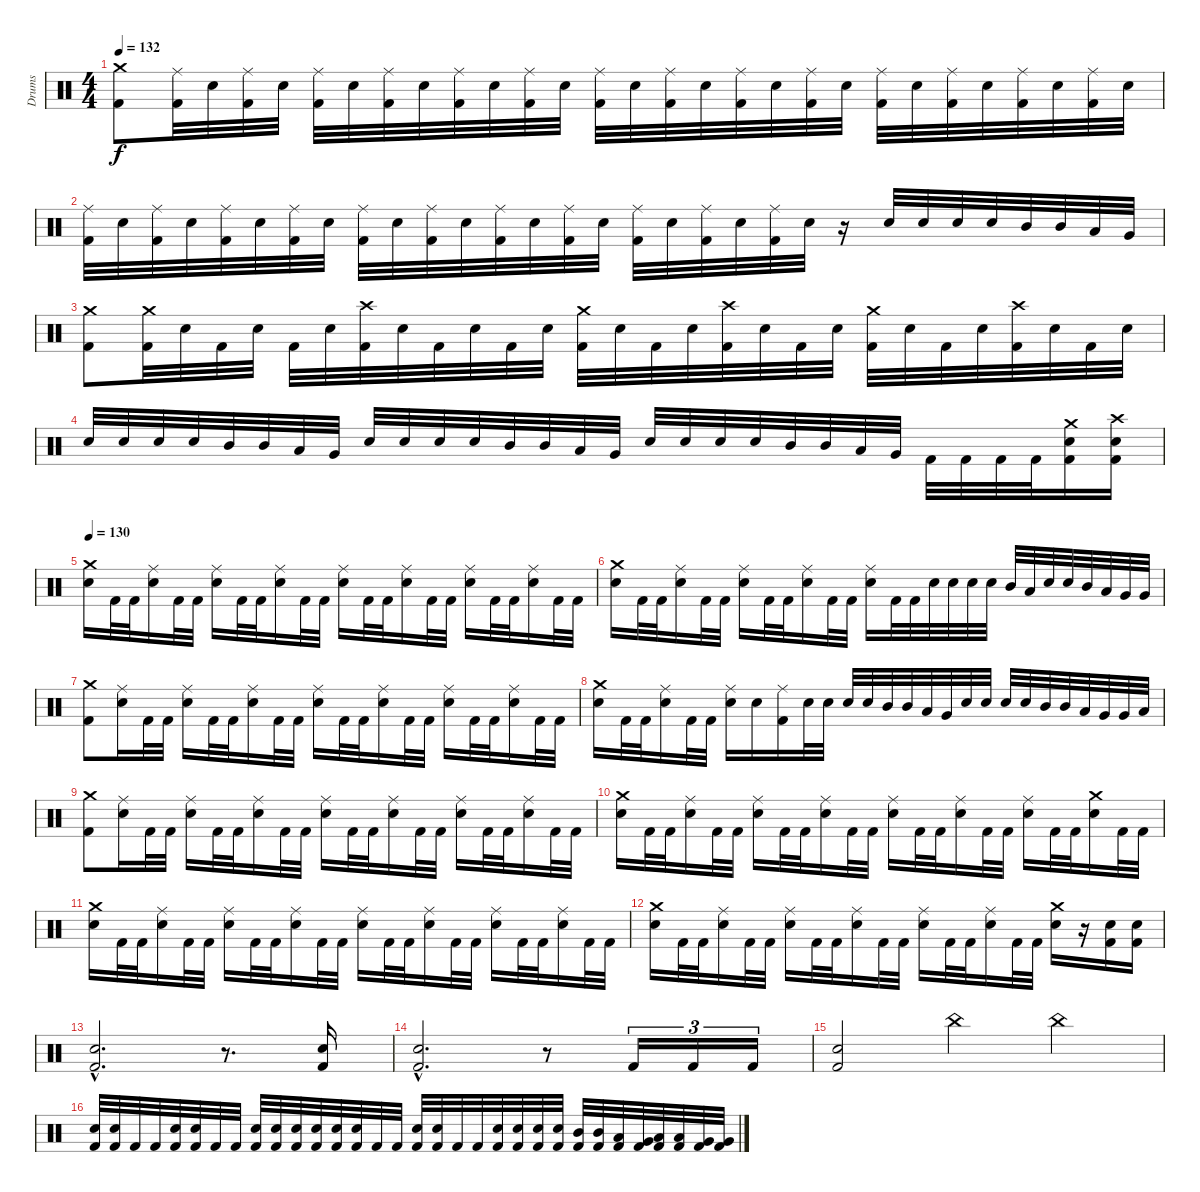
\track ("Drums" "Drums") {instrument percussion}
\staff {score}
\articulation defaults
\ts (4 4)
\section ("" "")
\tempo 132
\clef neutral
\ks c
("Crash medium (hit)" "Kick (hit) 2").8{dy f} ("Ride (middle)" "Kick (hit) 2").32 "Electric Snare (hit)".32 ("Ride (middle)" "Kick (hit) 2").32 "Electric Snare (hit)".32 ("Ride (middle)" "Kick (hit) 2").32 "Electric Snare (hit)".32 ("Ride (middle)" "Kick (hit) 2").32 "Electric Snare (hit)".32 ("Ride (middle)" "Kick (hit) 2").32 "Electric Snare (hit)".32 ("Ride (middle)" "Kick (hit) 2").32 "Electric Snare (hit)".32 ("Ride (middle)" "Kick (hit) 2").32 "Electric Snare (hit)".32 ("Ride (middle)" "Kick (hit) 2").32 "Electric Snare (hit)".32 ("Ride (middle)" "Kick (hit) 2").32 "Electric Snare (hit)".32 ("Ride (middle)" "Kick (hit) 2").32 "Electric Snare (hit)".32 ("Ride (middle)" "Kick (hit) 2").32 "Electric Snare (hit)".32 ("Ride (middle)" "Kick (hit) 2").32 "Electric Snare (hit)".32 ("Ride (middle)" "Kick (hit) 2").32 "Electric Snare (hit)".32 ("Ride (middle)" "Kick (hit) 2").32 "Electric Snare (hit)".32 |
("Ride (middle)" "Kick (hit) 2").32 "Electric Snare (hit)".32 ("Ride (middle)" "Kick (hit) 2").32 "Electric Snare (hit)".32 ("Ride (middle)" "Kick (hit) 2").32 "Electric Snare (hit)".32 ("Ride (middle)" "Kick (hit) 2").32 "Electric Snare (hit)".32 ("Ride (middle)" "Kick (hit) 2").32 "Electric Snare (hit)".32 ("Ride (middle)" "Kick (hit) 2").32 "Electric Snare (hit)".32 ("Ride (middle)" "Kick (hit) 2").32 "Electric Snare (hit)".32 ("Ride (middle)" "Kick (hit) 2").32 "Electric Snare (hit)".32 ("Ride (middle)" "Kick (hit) 2").32 "Electric Snare (hit)".32 ("Ride (middle)" "Kick (hit) 2").32 "Electric Snare (hit)".32 ("Ride (middle)" "Kick (hit) 2").32 "Electric Snare (hit)".32 r.16 "Electric Snare (hit)".32 "Electric Snare (hit)".32 "Electric Snare (hit)".32 "Electric Snare (hit)".32 "Mid Tom (hit)".32 "Mid Tom (hit)".32 "Low Tom (hit)".32 "Very Low Tom (hit)".32 |
("Crash medium (hit)" "Kick (hit) 2").8 ("Crash medium (hit)" "Kick (hit) 2").32 "Electric Snare (hit)".32 "Kick (hit) 2".32 "Electric Snare (hit)".32 "Kick (hit) 2".32 "Electric Snare (hit)".32 ("Crash high (hit)" "Kick (hit) 2").32 "Electric Snare (hit)".32 "Kick (hit) 2".32 "Electric Snare (hit)".32 "Kick (hit) 2".32 "Electric Snare (hit)".32 ("Crash medium (hit)" "Kick (hit) 2").32 "Electric Snare (hit)".32 "Kick (hit) 2".32 "Electric Snare (hit)".32 ("Crash high (hit)" "Kick (hit) 2").32 "Electric Snare (hit)".32 "Kick (hit) 2".32 "Electric Snare (hit)".32 ("Crash medium (hit)" "Kick (hit) 2").32 "Electric Snare (hit)".32 "Kick (hit) 2".32 "Electric Snare (hit)".32 ("Crash high (hit)" "Kick (hit) 2").32 "Electric Snare (hit)".32 "Kick (hit) 2".32 "Electric Snare (hit)".32 |
"Electric Snare (hit)".32 "Electric Snare (hit)".32 "Electric Snare (hit)".32 "Electric Snare (hit)".32 "Mid Tom (hit)".32 "Mid Tom (hit)".32 "Low Tom (hit)".32 "Very Low Tom (hit)".32 "Electric Snare (hit)".32 "Electric Snare (hit)".32 "Electric Snare (hit)".32 "Electric Snare (hit)".32 "Mid Tom (hit)".32 "Mid Tom (hit)".32 "Low Tom (hit)".32 "Very Low Tom (hit)".32 "Electric Snare (hit)".32 "Electric Snare (hit)".32 "Electric Snare (hit)".32 "Electric Snare (hit)".32 "Mid Tom (hit)".32 "Mid Tom (hit)".32 "Low Tom (hit)".32 "Very Low Tom (hit)".32 "Kick (hit) 2".32 "Kick (hit) 2".32 "Kick (hit) 2".32 "Kick (hit) 2".32 ("Crash medium (hit)" "Electric Snare (hit)" "Kick (hit) 2").16 ("Crash high (hit)" "Electric Snare (hit)" "Kick (hit) 2").16 |
\section ("" "")
\tempo 130
("Crash medium (hit)" "Electric Snare (hit)").16 "Kick (hit) 2".32 "Kick (hit) 2".32 ("Ride (middle)" "Electric Snare (hit)").16 "Kick (hit) 2".32 "Kick (hit) 2".32 ("Ride (middle)" "Electric Snare (hit)").16 "Kick (hit) 2".32 "Kick (hit) 2".32 ("Ride (middle)" "Electric Snare (hit)").16 "Kick (hit) 2".32 "Kick (hit) 2".32 ("Ride (middle)" "Electric Snare (hit)").16 "Kick (hit) 2".32 "Kick (hit) 2".32 ("Ride (middle)" "Electric Snare (hit)").16 "Kick (hit) 2".32 "Kick (hit) 2".32 ("Ride (middle)" "Electric Snare (hit)").16 "Kick (hit) 2".32 "Kick (hit) 2".32 ("Ride (middle)" "Electric Snare (hit)").16 "Kick (hit) 2".32 "Kick (hit) 2".32 |
("Crash medium (hit)" "Electric Snare (hit)").16 "Kick (hit) 2".32 "Kick (hit) 2".32 ("Ride (middle)" "Electric Snare (hit)").16 "Kick (hit) 2".32 "Kick (hit) 2".32 ("Ride (middle)" "Electric Snare (hit)").16 "Kick (hit) 2".32 "Kick (hit) 2".32 ("Ride (middle)" "Electric Snare (hit)").16 "Kick (hit) 2".32 "Kick (hit) 2".32 ("Ride (middle)" "Electric Snare (hit)").16 "Kick (hit) 2".32 "Kick (hit) 2".32 "Electric Snare (hit)".32 "Electric Snare (hit)".32 "Electric Snare (hit)".32 "Electric Snare (hit)".32 "Mid Tom (hit)".32 "Low Tom (hit)".32 "Electric Snare (hit)".32 "Electric Snare (hit)".32 "Mid Tom (hit)".32 "Low Tom (hit)".32 "Very Low Tom (hit)".32 "Very Low Tom (hit)".32 |
("Crash medium (hit)" "Kick (hit) 2").8 ("Ride (middle)" "Electric Snare (hit)").16 "Kick (hit) 2".32 "Kick (hit) 2".32 ("Ride (middle)" "Electric Snare (hit)").16 "Kick (hit) 2".32 "Kick (hit) 2".32 ("Ride (middle)" "Electric Snare (hit)").16 "Kick (hit) 2".32 "Kick (hit) 2".32 ("Ride (middle)" "Electric Snare (hit)").16 "Kick (hit) 2".32 "Kick (hit) 2".32 ("Ride (middle)" "Electric Snare (hit)").16 "Kick (hit) 2".32 "Kick (hit) 2".32 ("Ride (middle)" "Electric Snare (hit)").16 "Kick (hit) 2".32 "Kick (hit) 2".32 ("Ride (middle)" "Electric Snare (hit)").16 "Kick (hit) 2".32 "Kick (hit) 2".32 |
("Crash medium (hit)" "Electric Snare (hit)").16 "Kick (hit) 2".32 "Kick (hit) 2".32 ("Ride (middle)" "Electric Snare (hit)").16 "Kick (hit) 2".32 "Kick (hit) 2".32 ("Ride (middle)" "Electric Snare (hit)").16 "Electric Snare (hit)".16 ("Ride (middle)" "Kick (hit) 2").16 "Electric Snare (hit)".32 "Electric Snare (hit)".32 "Electric Snare (hit)".32 "Electric Snare (hit)".32 "Mid Tom (hit)".32 "Mid Tom (hit)".32 "Low Tom (hit)".32 "Very Low Tom (hit)".32 "Electric Snare (hit)".32 "Electric Snare (hit)".32 "Electric Snare (hit)".32 "Electric Snare (hit)".32 "Mid Tom (hit)".32 "Mid Tom (hit)".32 "Low Tom (hit)".32 "Very Low Tom (hit)".32 "Very Low Tom (hit)".32 "Low Floor Tom (hit)".32 |
("Crash medium (hit)" "Kick (hit) 2").8 ("Ride (middle)" "Electric Snare (hit)").16 "Kick (hit) 2".32 "Kick (hit) 2".32 ("Ride (middle)" "Electric Snare (hit)").16 "Kick (hit) 2".32 "Kick (hit) 2".32 ("Ride (middle)" "Electric Snare (hit)").16 "Kick (hit) 2".32 "Kick (hit) 2".32 ("Ride (middle)" "Electric Snare (hit)").16 "Kick (hit) 2".32 "Kick (hit) 2".32 ("Ride (middle)" "Electric Snare (hit)").16 "Kick (hit) 2".32 "Kick (hit) 2".32 ("Ride (middle)" "Electric Snare (hit)").16 "Kick (hit) 2".32 "Kick (hit) 2".32 ("Ride (middle)" "Electric Snare (hit)").16 "Kick (hit) 2".32 "Kick (hit) 2".32 |
("Crash medium (hit)" "Electric Snare (hit)").16 "Kick (hit) 2".32 "Kick (hit) 2".32 ("Ride (middle)" "Electric Snare (hit)").16 "Kick (hit) 2".32 "Kick (hit) 2".32 ("Ride (middle)" "Electric Snare (hit)").16 "Kick (hit) 2".32 "Kick (hit) 2".32 ("Ride (middle)" "Electric Snare (hit)").16 "Kick (hit) 2".32 "Kick (hit) 2".32 ("Ride (middle)" "Electric Snare (hit)").16 "Kick (hit) 2".32 "Kick (hit) 2".32 ("Ride (middle)" "Electric Snare (hit)").16 "Kick (hit) 2".32 "Kick (hit) 2".32 ("Ride (middle)" "Electric Snare (hit)").16 "Kick (hit) 2".32 "Kick (hit) 2".32 ("Crash medium (hit)" "Electric Snare (hit)").16 "Kick (hit) 2".32 "Kick (hit) 2".32 |
("Crash medium (hit)" "Electric Snare (hit)").16 "Kick (hit) 2".32 "Kick (hit) 2".32 ("Ride (middle)" "Electric Snare (hit)").16 "Kick (hit) 2".32 "Kick (hit) 2".32 ("Ride (middle)" "Electric Snare (hit)").16 "Kick (hit) 2".32 "Kick (hit) 2".32 ("Ride (middle)" "Electric Snare (hit)").16 "Kick (hit) 2".32 "Kick (hit) 2".32 ("Ride (middle)" "Electric Snare (hit)").16 "Kick (hit) 2".32 "Kick (hit) 2".32 ("Ride (middle)" "Electric Snare (hit)").16 "Kick (hit) 2".32 "Kick (hit) 2".32 ("Ride (middle)" "Electric Snare (hit)").16 "Kick (hit) 2".32 "Kick (hit) 2".32 ("Ride (middle)" "Electric Snare (hit)").16 "Kick (hit) 2".32 "Kick (hit) 2".32 |
("Crash medium (hit)" "Electric Snare (hit)").16 "Kick (hit) 2".32 "Kick (hit) 2".32 ("Ride (middle)" "Electric Snare (hit)").16 "Kick (hit) 2".32 "Kick (hit) 2".32 ("Ride (middle)" "Electric Snare (hit)").16 "Kick (hit) 2".32 "Kick (hit) 2".32 ("Ride (middle)" "Electric Snare (hit)").16 "Kick (hit) 2".32 "Kick (hit) 2".32 ("Ride (middle)" "Electric Snare (hit)").16 "Kick (hit) 2".32 "Kick (hit) 2".32 ("Ride (middle)" "Electric Snare (hit)").16 "Kick (hit) 2".32 "Kick (hit) 2".32 ("Crash medium (hit)" "Electric Snare (hit)").16 r.16 ("Electric Snare (hit)" "Kick (hit) 2").16 ("Electric Snare (hit)" "Kick (hit) 2").16 |
\section ("" "")
("Electric Snare (hit)"{hac} "Kick (hit) 2"{hac}).2{d} r.8{d} ("Electric Snare (hit)" "Kick (hit) 2").16 |
("Electric Snare (hit)"{hac} "Kick (hit) 2"{hac}).2{d} r.8 "Kick (hit) 2".16{tu (3 2)} "Kick (hit) 2".16{tu (3 2)} "Kick (hit) 2".16{tu (3 2)} |
("Electric Snare (hit)" "Kick (hit) 2").2 "China (hit)".4 "China (hit)".4 |
("Electric Snare (hit)" "Kick (hit) 2").32 ("Electric Snare (hit)" "Kick (hit) 2").32 "Kick (hit) 2".32 "Kick (hit) 2".32 ("Electric Snare (hit)" "Kick (hit) 2").32 ("Electric Snare (hit)" "Kick (hit) 2").32 "Kick (hit) 2".32 "Kick (hit) 2".32 ("Electric Snare (hit)" "Kick (hit) 2").32 ("Electric Snare (hit)" "Kick (hit) 2").32 ("Electric Snare (hit)" "Kick (hit) 2").32 ("Electric Snare (hit)" "Kick (hit) 2").32 ("Electric Snare (hit)" "Kick (hit) 2").32 ("Electric Snare (hit)" "Kick (hit) 2").32 "Kick (hit) 2".32 "Kick (hit) 2".32 ("Electric Snare (hit)" "Kick (hit) 2").32 ("Electric Snare (hit)" "Kick (hit) 2").32 "Kick (hit) 2".32 "Kick (hit) 2".32 ("Electric Snare (hit)" "Kick (hit) 2").32 ("Electric Snare (hit)" "Kick (hit) 2").32 ("Electric Snare (hit)" "Kick (hit) 2").32 ("Electric Snare (hit)" "Kick (hit) 2").32 ("Mid Tom (hit)" "Kick (hit) 2").32 ("Mid Tom (hit)" "Kick (hit) 2").32 ("Low Tom (hit)" "Kick (hit) 2").32 ("Very Low Tom (hit)" "Kick (hit) 2").32 ("Low Tom (hit)" "Kick (hit) 2").32 ("Low Tom (hit)" "Kick (hit) 2").32 ("Very Low Tom (hit)" "Kick (hit) 2").32 ("Very Low Tom (hit)" "Kick (hit) 2").32
